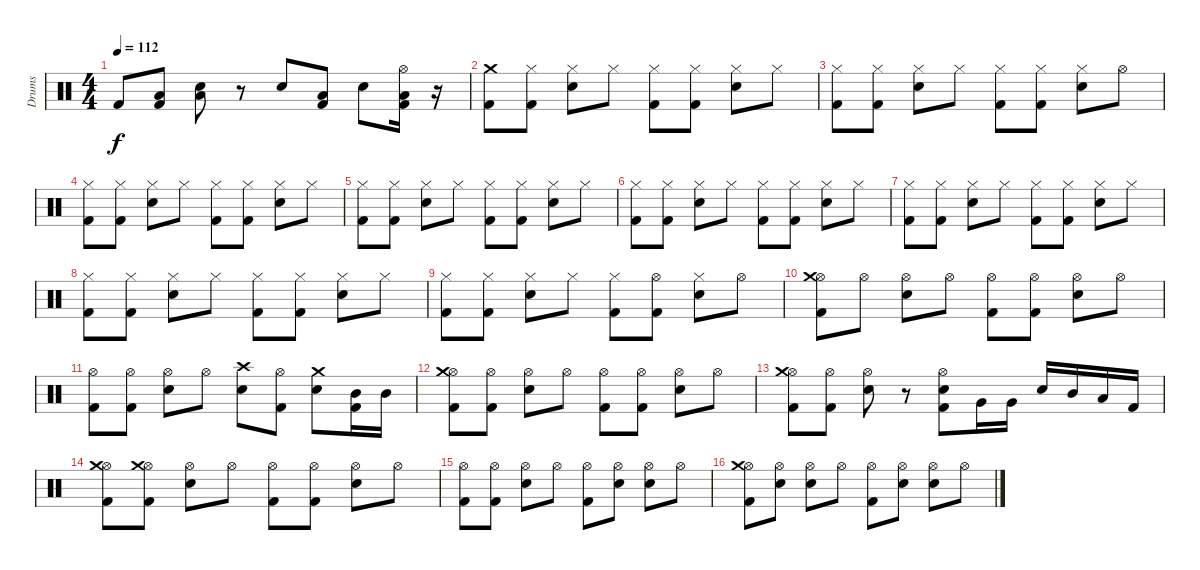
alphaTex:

\track ("Drums" "Drums") {instrument percussion}
\staff {score}
\articulation defaults
\ts (4 4)
\tempo 112
\clef neutral
\ks c "Kick (hit) 2".8{dy f}
("Kick (hit) 2" "Low Tom (hit)").8 ("Electric Snare (hit)" "Low Tom (hit)").8 r.8 "Electric Snare (hit)".8 ("Kick (hit) 2" "Low Tom (hit)").8 "Electric Snare (hit)".8 ("Kick (hit) 2" "Low Tom (hit)" "Hi-Hat (open)").16 r.16 |
("Kick (hit) 2" "Crash medium (hit)").8 ("Kick (hit) 2" "Hi-Hat (closed)").8 ("Electric Snare (hit)" "Hi-Hat (closed)").8 "Hi-Hat (closed)".8 ("Kick (hit) 2" "Hi-Hat (closed)").8 ("Kick (hit) 2" "Hi-Hat (closed)").8 ("Electric Snare (hit)" "Hi-Hat (closed)").8 "Hi-Hat (closed)".8 |
("Kick (hit) 2" "Hi-Hat (closed)").8 ("Kick (hit) 2" "Hi-Hat (closed)").8 ("Electric Snare (hit)" "Hi-Hat (closed)").8 "Hi-Hat (closed)".8 ("Kick (hit) 2" "Hi-Hat (closed)").8 ("Kick (hit) 2" "Hi-Hat (closed)").8 ("Electric Snare (hit)" "Hi-Hat (closed)").8 "Hi-Hat (open)".8 |
("Hi-Hat (closed)" "Kick (hit) 2").8 ("Kick (hit) 2" "Hi-Hat (closed)").8 ("Electric Snare (hit)" "Hi-Hat (closed)").8 "Hi-Hat (closed)".8 ("Kick (hit) 2" "Hi-Hat (closed)").8 ("Kick (hit) 2" "Hi-Hat (closed)").8 ("Electric Snare (hit)" "Hi-Hat (closed)").8 "Hi-Hat (closed)".8 |
("Kick (hit) 2" "Hi-Hat (closed)").8 ("Kick (hit) 2" "Hi-Hat (closed)").8 ("Electric Snare (hit)" "Hi-Hat (closed)").8 "Hi-Hat (closed)".8 ("Kick (hit) 2" "Hi-Hat (closed)").8 ("Kick (hit) 2" "Hi-Hat (closed)").8 ("Electric Snare (hit)" "Hi-Hat (closed)").8 "Hi-Hat (closed)".8 |
("Kick (hit) 2" "Hi-Hat (closed)").8 ("Kick (hit) 2" "Hi-Hat (closed)").8 ("Electric Snare (hit)" "Hi-Hat (closed)").8 "Hi-Hat (closed)".8 ("Kick (hit) 2" "Hi-Hat (closed)").8 ("Kick (hit) 2" "Hi-Hat (closed)").8 ("Electric Snare (hit)" "Hi-Hat (closed)").8 "Hi-Hat (closed)".8 |
("Kick (hit) 2" "Hi-Hat (closed)").8 ("Kick (hit) 2" "Hi-Hat (closed)").8 ("Electric Snare (hit)" "Hi-Hat (closed)").8 "Hi-Hat (closed)".8 ("Kick (hit) 2" "Hi-Hat (closed)").8 ("Kick (hit) 2" "Hi-Hat (closed)").8 ("Electric Snare (hit)" "Hi-Hat (closed)").8 "Hi-Hat (closed)".8 |
("Kick (hit) 2" "Hi-Hat (closed)").8 ("Kick (hit) 2" "Hi-Hat (closed)").8 ("Electric Snare (hit)" "Hi-Hat (closed)").8 "Hi-Hat (closed)".8 ("Kick (hit) 2" "Hi-Hat (closed)").8 ("Kick (hit) 2" "Hi-Hat (closed)").8 ("Electric Snare (hit)" "Hi-Hat (closed)").8 "Hi-Hat (closed)".8 |
("Kick (hit) 2" "Hi-Hat (closed)").8 ("Kick (hit) 2" "Hi-Hat (closed)").8 ("Electric Snare (hit)" "Hi-Hat (closed)").8 "Hi-Hat (closed)".8 ("Kick (hit) 2" "Hi-Hat (closed)").8 ("Kick (hit) 2" "Hi-Hat (open)").8 ("Electric Snare (hit)" "Hi-Hat (closed)").8 "Hi-Hat (open)".8 |
("Kick (hit) 2" "Hi-Hat (open)" "Crash medium (hit)").8 "Hi-Hat (open)".8 ("Electric Snare (hit)" "Hi-Hat (open)").8 "Hi-Hat (open)".8 ("Kick (hit) 2" "Hi-Hat (open)").8 ("Kick (hit) 2" "Hi-Hat (open)").8 ("Electric Snare (hit)" "Hi-Hat (open)").8 "Hi-Hat (open)".8 |
("Kick (hit) 2" "Hi-Hat (open)").8 ("Kick (hit) 2" "Hi-Hat (open)").8 ("Electric Snare (hit)" "Hi-Hat (open)").8 "Hi-Hat (open)".8 ("Electric Snare (hit)" "Crash high (hit)").8 ("Kick (hit) 2" "Hi-Hat (open)").8 ("Electric Snare (hit)" "Crash medium (hit)").8 ("Mid Tom (hit)" "Kick (hit) 2").16 "Mid Tom (hit)".16 |
("Kick (hit) 2" "Hi-Hat (open)" "Crash medium (hit)").8 ("Kick (hit) 2" "Hi-Hat (open)").8 ("Electric Snare (hit)" "Hi-Hat (open)").8 "Hi-Hat (open)".8 ("Kick (hit) 2" "Hi-Hat (open)").8 ("Kick (hit) 2" "Hi-Hat (open)").8 ("Electric Snare (hit)" "Hi-Hat (open)").8 "Hi-Hat (open)".8 |
("Kick (hit) 2" "Hi-Hat (open)" "Crash medium (hit)").8 ("Kick (hit) 2" "Hi-Hat (open)").8 ("Electric Snare (hit)" "Hi-Hat (open)").8 r.8 ("Kick (hit) 2" "Electric Snare (hit)" "Hi-Hat (open)").8 "Very Low Tom (hit)".16 "Very Low Tom (hit)".16 "Electric Snare (hit)".16 "Mid Tom (hit)".16 "Low Tom (hit)".16 "Kick (hit) 2".16 |
("Kick (hit) 2" "Hi-Hat (open)" "Crash medium (hit)").8 ("Kick (hit) 2" "Hi-Hat (open)" "Crash medium (hit)").8 ("Electric Snare (hit)" "Hi-Hat (open)").8 "Hi-Hat (open)".8 ("Kick (hit) 2" "Hi-Hat (open)").8 ("Kick (hit) 2" "Hi-Hat (open)").8 ("Electric Snare (hit)" "Hi-Hat (open)").8 "Hi-Hat (open)".8 |
("Kick (hit) 2" "Hi-Hat (open)").8 ("Kick (hit) 2" "Hi-Hat (open)").8 ("Electric Snare (hit)" "Hi-Hat (open)").8 "Hi-Hat (open)".8 ("Kick (hit) 2" "Hi-Hat (open)").8 ("Electric Snare (hit)" "Hi-Hat (open)").8 ("Electric Snare (hit)" "Hi-Hat (open)").8 "Hi-Hat (open)".8 |
("Kick (hit) 2" "Hi-Hat (open)" "Crash medium (hit)").8 ("Electric Snare (hit)" "Hi-Hat (open)").8 ("Electric Snare (hit)" "Hi-Hat (open)").8 "Hi-Hat (open)".8 ("Kick (hit) 2" "Hi-Hat (open)").8 ("Electric Snare (hit)" "Hi-Hat (open)").8 ("Electric Snare (hit)" "Hi-Hat (open)").8 "Hi-Hat (open)".8
